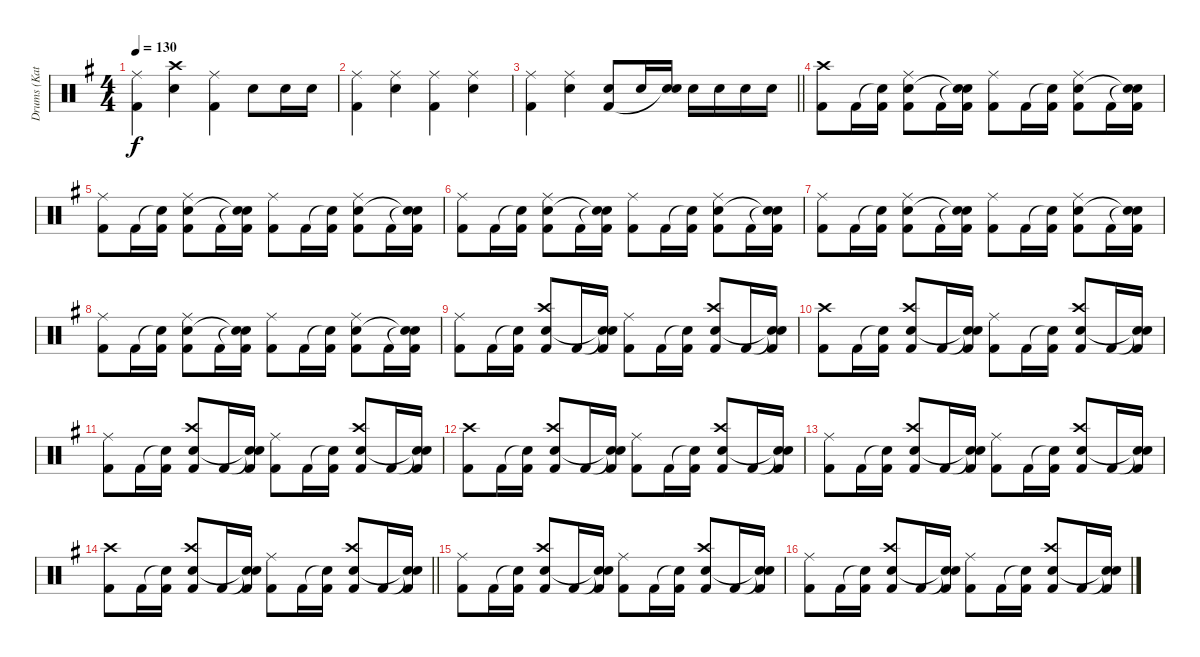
\track ("Drums (Katsuji)" "Drums (Kat") {instrument percussion}
\staff {score}
\articulation defaults
\ts (4 4)
\tempo 130
\clef neutral
\ks g
("Ride (middle)" "Kick (hit) 2").4{dy f} ("Crash high (hit)" "Snare (hit) 2").4 ("Ride (middle)" "Kick (hit) 2").4 "Snare (hit) 2".8 "Snare (hit) 2".16 "Snare (hit) 2".16 |
("Ride (middle)" "Kick (hit) 2").4 ("Ride (middle)" "Snare (hit) 2").4 ("Ride (middle)" "Kick (hit) 2").4 ("Ride (middle)" "Snare (hit) 2").4 |
\barLineRight lightlight
("Ride (middle)" "Kick (hit) 2").4 ("Ride (middle)" "Snare (hit) 2").4 ("Snare (hit) 2" "Kick (hit) 2").8 "Snare (hit) 2".16 ("Snare (hit) 2" "Snare (hit)"{t}).16 "Snare (hit) 2".16 "Snare (hit) 2".16 "Snare (hit) 2".16 "Snare (hit) 2".16 |
("Crash high (hit)" "Kick (hit) 2").8 "Kick (hit) 2".16 ("Snare (hit)"{t} "Kick (hit) 2").16 ("Ride (middle)" "Snare (hit) 2" "Kick (hit) 2").8 "Kick (hit) 2".16 ("Snare (hit)"{t} "Snare (hit)"{t} "Kick (hit) 2").16 ("Ride (middle)" "Kick (hit) 2").8 "Kick (hit) 2".16 ("Snare (hit)"{t} "Kick (hit) 2").16 ("Ride (middle)" "Snare (hit) 2" "Kick (hit) 2").8 "Kick (hit) 2".16 ("Snare (hit)"{t} "Snare (hit)"{t} "Kick (hit) 2").16 |
("Ride (middle)" "Kick (hit) 2").8 "Kick (hit) 2".16 ("Snare (hit)"{t} "Kick (hit) 2").16 ("Ride (middle)" "Snare (hit) 2" "Kick (hit) 2").8 "Kick (hit) 2".16 ("Snare (hit)"{t} "Snare (hit)"{t} "Kick (hit) 2").16 ("Ride (middle)" "Kick (hit) 2").8 "Kick (hit) 2".16 ("Snare (hit)"{t} "Kick (hit) 2").16 ("Ride (middle)" "Snare (hit) 2" "Kick (hit) 2").8 "Kick (hit) 2".16 ("Snare (hit)"{t} "Snare (hit)"{t} "Kick (hit) 2").16 |
("Ride (middle)" "Kick (hit) 2").8 "Kick (hit) 2".16 ("Snare (hit)"{t} "Kick (hit) 2").16 ("Ride (middle)" "Snare (hit) 2" "Kick (hit) 2").8 "Kick (hit) 2".16 ("Snare (hit)"{t} "Snare (hit)"{t} "Kick (hit) 2").16 ("Ride (middle)" "Kick (hit) 2").8 "Kick (hit) 2".16 ("Snare (hit)"{t} "Kick (hit) 2").16 ("Ride (middle)" "Snare (hit) 2" "Kick (hit) 2").8 "Kick (hit) 2".16 ("Snare (hit)"{t} "Snare (hit)"{t} "Kick (hit) 2").16 |
("Ride (middle)" "Kick (hit) 2").8 "Kick (hit) 2".16 ("Snare (hit)"{t} "Kick (hit) 2").16 ("Ride (middle)" "Snare (hit) 2" "Kick (hit) 2").8 "Kick (hit) 2".16 ("Snare (hit)"{t} "Snare (hit)"{t} "Kick (hit) 2").16 ("Ride (middle)" "Kick (hit) 2").8 "Kick (hit) 2".16 ("Snare (hit)"{t} "Kick (hit) 2").16 ("Ride (middle)" "Snare (hit) 2" "Kick (hit) 2").8 "Kick (hit) 2".16 ("Snare (hit)"{t} "Snare (hit)"{t} "Kick (hit) 2").16 |
("Ride (middle)" "Kick (hit) 2").8 "Kick (hit) 2".16 ("Snare (hit)"{t} "Kick (hit) 2").16 ("Ride (middle)" "Snare (hit) 2" "Kick (hit) 2").8 "Kick (hit) 2".16 ("Snare (hit)"{t} "Snare (hit)"{t} "Kick (hit) 2").16 ("Ride (middle)" "Kick (hit) 2").8 "Kick (hit) 2".16 ("Snare (hit)"{t} "Kick (hit) 2").16 ("Ride (middle)" "Snare (hit) 2" "Kick (hit) 2").8 "Kick (hit) 2".16 ("Snare (hit)"{t} "Snare (hit)"{t} "Kick (hit) 2").16 |
("Ride (middle)" "Kick (hit) 2").8 "Kick (hit) 2".16 ("Snare (hit)"{t} "Kick (hit) 2").16 ("Crash high (hit)" "Snare (hit) 2" "Kick (hit) 2").8 "Kick (hit) 2".16 ("Snare (hit)"{t} "Snare (hit)"{t} "Kick (hit) 2").16 ("Ride (middle)" "Kick (hit) 2").8 "Kick (hit) 2".16 ("Snare (hit)"{t} "Kick (hit) 2").16 ("Crash high (hit)" "Snare (hit) 2" "Kick (hit) 2").8 "Kick (hit) 2".16 ("Snare (hit)"{t} "Snare (hit)"{t} "Kick (hit) 2").16 |
("Crash high (hit)" "Kick (hit) 2").8 "Kick (hit) 2".16 ("Snare (hit)"{t} "Kick (hit) 2").16 ("Crash high (hit)" "Snare (hit) 2" "Kick (hit) 2").8 "Kick (hit) 2".16 ("Snare (hit)"{t} "Snare (hit)"{t} "Kick (hit) 2").16 ("Ride (middle)" "Kick (hit) 2").8 "Kick (hit) 2".16 ("Snare (hit)"{t} "Kick (hit) 2").16 ("Crash high (hit)" "Snare (hit) 2" "Kick (hit) 2").8 "Kick (hit) 2".16 ("Snare (hit)"{t} "Snare (hit)"{t} "Kick (hit) 2").16 |
("Ride (middle)" "Kick (hit) 2").8 "Kick (hit) 2".16 ("Snare (hit)"{t} "Kick (hit) 2").16 ("Crash high (hit)" "Snare (hit) 2" "Kick (hit) 2").8 "Kick (hit) 2".16 ("Snare (hit)"{t} "Snare (hit)"{t} "Kick (hit) 2").16 ("Ride (middle)" "Kick (hit) 2").8 "Kick (hit) 2".16 ("Snare (hit)"{t} "Kick (hit) 2").16 ("Crash high (hit)" "Snare (hit) 2" "Kick (hit) 2").8 "Kick (hit) 2".16 ("Snare (hit)"{t} "Snare (hit)"{t} "Kick (hit) 2").16 |
("Crash high (hit)" "Kick (hit) 2").8 "Kick (hit) 2".16 ("Snare (hit)"{t} "Kick (hit) 2").16 ("Crash high (hit)" "Snare (hit) 2" "Kick (hit) 2").8 "Kick (hit) 2".16 ("Snare (hit)"{t} "Snare (hit)"{t} "Kick (hit) 2").16 ("Ride (middle)" "Kick (hit) 2").8 "Kick (hit) 2".16 ("Snare (hit)"{t} "Kick (hit) 2").16 ("Crash high (hit)" "Snare (hit) 2" "Kick (hit) 2").8 "Kick (hit) 2".16 ("Snare (hit)"{t} "Snare (hit)"{t} "Kick (hit) 2").16 |
("Ride (middle)" "Kick (hit) 2").8 "Kick (hit) 2".16 ("Snare (hit)"{t} "Kick (hit) 2").16 ("Crash high (hit)" "Snare (hit) 2" "Kick (hit) 2").8 "Kick (hit) 2".16 ("Snare (hit)"{t} "Snare (hit)"{t} "Kick (hit) 2").16 ("Ride (middle)" "Kick (hit) 2").8 "Kick (hit) 2".16 ("Snare (hit)"{t} "Kick (hit) 2").16 ("Crash high (hit)" "Snare (hit) 2" "Kick (hit) 2").8 "Kick (hit) 2".16 ("Snare (hit)"{t} "Snare (hit)"{t} "Kick (hit) 2").16 |
\barLineRight lightlight
("Crash high (hit)" "Kick (hit) 2").8 "Kick (hit) 2".16 ("Snare (hit)"{t} "Kick (hit) 2").16 ("Crash high (hit)" "Snare (hit) 2" "Kick (hit) 2").8 "Kick (hit) 2".16 ("Snare (hit)"{t} "Snare (hit)"{t} "Kick (hit) 2").16 ("Ride (middle)" "Kick (hit) 2").8 "Kick (hit) 2".16 ("Snare (hit)"{t} "Kick (hit) 2").16 ("Crash high (hit)" "Snare (hit) 2" "Kick (hit) 2").8 "Kick (hit) 2".16 ("Snare (hit)"{t} "Snare (hit)"{t} "Kick (hit) 2").16 |
("Ride (middle)" "Kick (hit) 2").8 "Kick (hit) 2".16 ("Snare (hit)"{t} "Kick (hit) 2").16 ("Crash high (hit)" "Snare (hit) 2" "Kick (hit) 2").8 "Kick (hit) 2".16 ("Snare (hit)"{t} "Snare (hit)"{t} "Kick (hit) 2").16 ("Ride (middle)" "Kick (hit) 2").8 "Kick (hit) 2".16 ("Snare (hit)"{t} "Kick (hit) 2").16 ("Crash high (hit)" "Snare (hit) 2" "Kick (hit) 2").8 "Kick (hit) 2".16 ("Snare (hit)"{t} "Snare (hit)"{t} "Kick (hit) 2").16 |
("Ride (middle)" "Kick (hit) 2").8 "Kick (hit) 2".16 ("Snare (hit)"{t} "Kick (hit) 2").16 ("Crash high (hit)" "Snare (hit) 2" "Kick (hit) 2").8 "Kick (hit) 2".16 ("Snare (hit)"{t} "Snare (hit)"{t} "Kick (hit) 2").16 ("Ride (middle)" "Kick (hit) 2").8 "Kick (hit) 2".16 ("Snare (hit)"{t} "Kick (hit) 2").16 ("Crash high (hit)" "Snare (hit) 2" "Kick (hit) 2").8 "Kick (hit) 2".16 ("Snare (hit)"{t} "Snare (hit)"{t} "Kick (hit) 2").16
